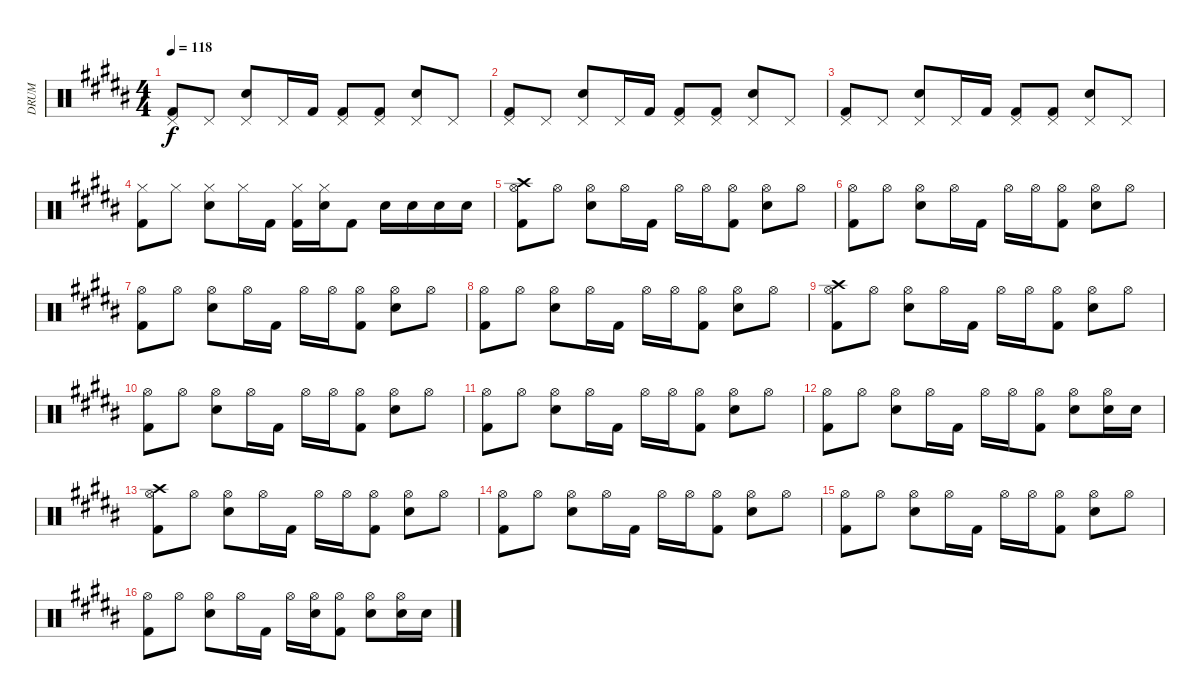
\track ("DRUM" "DRUM") {instrument percussion}
\staff {score}
\articulation defaults
\ts (4 4)
\tempo 118
\clef neutral
\ks b
("Pedal Hi-Hat (hit)" "Kick (hit) 2").8{dy f} "Pedal Hi-Hat (hit)".8 ("Pedal Hi-Hat (hit)" "Electric Snare (hit)").8 "Pedal Hi-Hat (hit)".16 "Kick (hit) 2".16 ("Pedal Hi-Hat (hit)" "Kick (hit) 2").8 ("Pedal Hi-Hat (hit)" "Kick (hit) 2").8 ("Pedal Hi-Hat (hit)" "Electric Snare (hit)").8 "Pedal Hi-Hat (hit)".8 |
("Pedal Hi-Hat (hit)" "Kick (hit) 2").8 "Pedal Hi-Hat (hit)".8 ("Pedal Hi-Hat (hit)" "Electric Snare (hit)").8 "Pedal Hi-Hat (hit)".16 "Kick (hit) 2".16 ("Pedal Hi-Hat (hit)" "Kick (hit) 2").8 ("Pedal Hi-Hat (hit)" "Kick (hit) 2").8 ("Pedal Hi-Hat (hit)" "Electric Snare (hit)").8 "Pedal Hi-Hat (hit)".8 |
("Pedal Hi-Hat (hit)" "Kick (hit) 2").8 "Pedal Hi-Hat (hit)".8 ("Pedal Hi-Hat (hit)" "Electric Snare (hit)").8 "Pedal Hi-Hat (hit)".16 "Kick (hit) 2".16 ("Pedal Hi-Hat (hit)" "Kick (hit) 2").8 ("Pedal Hi-Hat (hit)" "Kick (hit) 2").8 ("Pedal Hi-Hat (hit)" "Electric Snare (hit)").8 "Pedal Hi-Hat (hit)".8 |
("Hi-Hat (closed)" "Kick (hit) 2").8 "Hi-Hat (closed)".8 ("Hi-Hat (closed)" "Electric Snare (hit)").8 "Hi-Hat (closed)".16 "Kick (hit) 2".16 ("Hi-Hat (closed)" "Kick (hit) 2").16 ("Hi-Hat (closed)" "Electric Snare (hit)").16 "Kick (hit) 2".8 "Electric Snare (hit)".16 "Electric Snare (hit)".16 "Electric Snare (hit)".16 "Electric Snare (hit)".16 |
("Crash high (hit)" "Hi-Hat (open)" "Kick (hit) 2").8 "Hi-Hat (open)".8 ("Hi-Hat (open)" "Electric Snare (hit)").8 "Hi-Hat (open)".16 "Kick (hit) 2".16 "Hi-Hat (open)".16 "Hi-Hat (open)".16 ("Hi-Hat (open)" "Kick (hit) 2").8 ("Hi-Hat (open)" "Electric Snare (hit)").8 "Hi-Hat (open)".8 |
("Hi-Hat (open)" "Kick (hit) 2").8 "Hi-Hat (open)".8 ("Hi-Hat (open)" "Electric Snare (hit)").8 "Hi-Hat (open)".16 "Kick (hit) 2".16 "Hi-Hat (open)".16 "Hi-Hat (open)".16 ("Hi-Hat (open)" "Kick (hit) 2").8 ("Hi-Hat (open)" "Electric Snare (hit)").8 "Hi-Hat (open)".8 |
("Hi-Hat (open)" "Kick (hit) 2").8 "Hi-Hat (open)".8 ("Hi-Hat (open)" "Electric Snare (hit)").8 "Hi-Hat (open)".16 "Kick (hit) 2".16 "Hi-Hat (open)".16 "Hi-Hat (open)".16 ("Hi-Hat (open)" "Kick (hit) 2").8 ("Hi-Hat (open)" "Electric Snare (hit)").8 "Hi-Hat (open)".8 |
("Hi-Hat (open)" "Kick (hit) 2").8 "Hi-Hat (open)".8 ("Hi-Hat (open)" "Electric Snare (hit)").8 "Hi-Hat (open)".16 "Kick (hit) 2".16 "Hi-Hat (open)".16 "Hi-Hat (open)".16 ("Hi-Hat (open)" "Kick (hit) 2").8 ("Hi-Hat (open)" "Electric Snare (hit)").8 "Hi-Hat (open)".8 |
("Crash high (hit)" "Hi-Hat (open)" "Kick (hit) 2").8 "Hi-Hat (open)".8 ("Hi-Hat (open)" "Electric Snare (hit)").8 "Hi-Hat (open)".16 "Kick (hit) 2".16 "Hi-Hat (open)".16 "Hi-Hat (open)".16 ("Hi-Hat (open)" "Kick (hit) 2").8 ("Hi-Hat (open)" "Electric Snare (hit)").8 "Hi-Hat (open)".8 |
("Hi-Hat (open)" "Kick (hit) 2").8 "Hi-Hat (open)".8 ("Hi-Hat (open)" "Electric Snare (hit)").8 "Hi-Hat (open)".16 "Kick (hit) 2".16 "Hi-Hat (open)".16 "Hi-Hat (open)".16 ("Hi-Hat (open)" "Kick (hit) 2").8 ("Hi-Hat (open)" "Electric Snare (hit)").8 "Hi-Hat (open)".8 |
("Hi-Hat (open)" "Kick (hit) 2").8 "Hi-Hat (open)".8 ("Hi-Hat (open)" "Electric Snare (hit)").8 "Hi-Hat (open)".16 "Kick (hit) 2".16 "Hi-Hat (open)".16 "Hi-Hat (open)".16 ("Hi-Hat (open)" "Kick (hit) 2").8 ("Hi-Hat (open)" "Electric Snare (hit)").8 "Hi-Hat (open)".8 |
("Hi-Hat (open)" "Kick (hit) 2").8 "Hi-Hat (open)".8 ("Hi-Hat (open)" "Electric Snare (hit)").8 "Hi-Hat (open)".16 "Kick (hit) 2".16 "Hi-Hat (open)".16 "Hi-Hat (open)".16 ("Hi-Hat (open)" "Kick (hit) 2").8 ("Hi-Hat (open)" "Electric Snare (hit)").8 ("Hi-Hat (open)" "Electric Snare (hit)").16 "Electric Snare (hit)".16 |
("Crash high (hit)" "Hi-Hat (open)" "Kick (hit) 2").8 "Hi-Hat (open)".8 ("Hi-Hat (open)" "Electric Snare (hit)").8 "Hi-Hat (open)".16 "Kick (hit) 2".16 "Hi-Hat (open)".16 "Hi-Hat (open)".16 ("Hi-Hat (open)" "Kick (hit) 2").8 ("Hi-Hat (open)" "Electric Snare (hit)").8 "Hi-Hat (open)".8 |
("Hi-Hat (open)" "Kick (hit) 2").8 "Hi-Hat (open)".8 ("Hi-Hat (open)" "Electric Snare (hit)").8 "Hi-Hat (open)".16 "Kick (hit) 2".16 "Hi-Hat (open)".16 "Hi-Hat (open)".16 ("Hi-Hat (open)" "Kick (hit) 2").8 ("Hi-Hat (open)" "Electric Snare (hit)").8 "Hi-Hat (open)".8 |
("Hi-Hat (open)" "Kick (hit) 2").8 "Hi-Hat (open)".8 ("Hi-Hat (open)" "Electric Snare (hit)").8 "Hi-Hat (open)".16 "Kick (hit) 2".16 "Hi-Hat (open)".16 "Hi-Hat (open)".16 ("Hi-Hat (open)" "Kick (hit) 2").8 ("Hi-Hat (open)" "Electric Snare (hit)").8 "Hi-Hat (open)".8 |
("Hi-Hat (open)" "Kick (hit) 2").8 "Hi-Hat (open)".8 ("Hi-Hat (open)" "Electric Snare (hit)").8 "Hi-Hat (open)".16 "Kick (hit) 2".16 "Hi-Hat (open)".16 ("Hi-Hat (open)" "Electric Snare (hit)").16 ("Hi-Hat (open)" "Kick (hit) 2").8 ("Hi-Hat (open)" "Electric Snare (hit)").8 ("Hi-Hat (open)" "Electric Snare (hit)").16 "Electric Snare (hit)".16
